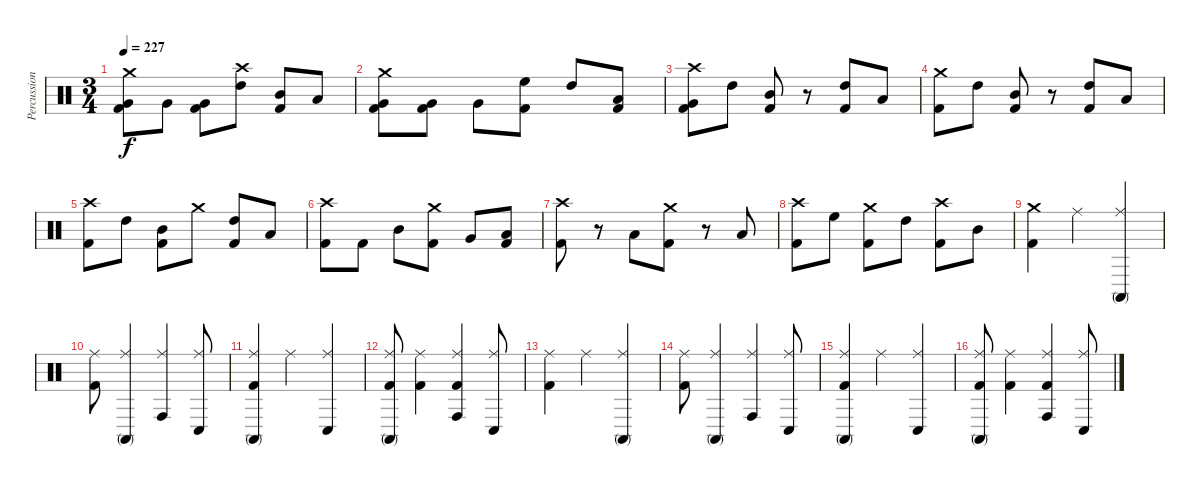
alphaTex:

\track ("Percussion" "Percussion") {instrument percussion}
\staff {score}
\articulation defaults
\ts (3 4)
\tempo 227
\clef neutral
\ks c
("Crash medium (hit)" "Very Low Tom (hit)" "Kick (hit) 2").8{dy f} "Very Low Tom (hit)".8 ("Very Low Tom (hit)" "Kick (hit) 2").8 ("Crash high (hit)" "High Tom (hit)").8 ("Mid Tom (hit)" "Kick (hit) 2").8 "Low Tom (hit)".8 |
("Crash medium (hit)" "Very Low Tom (hit)" "Kick (hit) 2").8 ("Very Low Tom (hit)" "Kick (hit) 2").8 "Very Low Tom (hit)".8 ("High Floor Tom (hit)" "Kick (hit) 2").8 "High Tom (hit)".8 ("Low Tom (hit)" "Kick (hit) 2").8 |
("Crash high (hit)" "Very Low Tom (hit)" "Kick (hit) 2").8 "High Tom (hit)".8 ("Mid Tom (hit)" "Kick (hit) 2").8 r.8 ("High Tom (hit)" "Kick (hit) 2").8 "Low Tom (hit)".8 |
("Crash medium (hit)" "Kick (hit) 2").8 "High Tom (hit)".8 ("Mid Tom (hit)" "Kick (hit) 2").8 r.8 ("High Tom (hit)" "Kick (hit) 2").8 "Low Tom (hit)".8 |
("Crash high (hit)" "Kick (hit) 2").8 "High Tom (hit)".8 ("Mid Tom (hit)" "Kick (hit) 2").8 "Crash medium (hit)".8 ("High Tom (hit)" "Kick (hit) 2").8 "Low Tom (hit)".8 |
("Crash high (hit)" "Kick (hit) 2").8 "Kick (hit) 2".8 "Mid Tom (hit)".8 ("Crash medium (hit)" "Kick (hit) 2").8 "Very Low Tom (hit)".8 ("Low Tom (hit)" "Kick (hit) 2").8 |
("Crash high (hit)" "Kick (hit) 2").8 r.8 "Low Floor Tom (hit)".8 ("Crash medium (hit)" "Kick (hit) 2").8 r.8 "Low Floor Tom (hit)".8 |
("Crash high (hit)" "Kick (hit) 2").8 "High Floor Tom (hit)".8 ("Crash medium (hit)" "Kick (hit) 2").8 "High Tom (hit)".8 ("Crash high (hit)" "Kick (hit) 2").8 "Mid Tom (hit)".8 |
("Crash medium (hit)" "Kick (hit) 2").4 "Ride (middle)".4 ("Ride (middle)" "Conga high (mute)").4 |
("Ride (middle)" "Kick (hit) 2").8 ("Ride (middle)" "Conga high (mute)").4 ("Ride (middle)" "Conga high (hit)").4 ("Ride (middle)" "Conga low (hit)").8 |
("Ride (middle)" "Conga high (mute)" "Kick (hit) 2").4 "Ride (middle)".4 ("Ride (middle)" "Conga low (hit)").4 |
("Ride (middle)" "Conga high (mute)" "Kick (hit) 2").8 ("Ride (middle)" "Kick (hit) 2").4 ("Ride (middle)" "Conga high (hit)" "Kick (hit) 2").4 ("Ride (middle)" "Conga low (hit)").8 |
("Ride (middle)" "Kick (hit) 2").4 "Ride (middle)".4 ("Ride (middle)" "Conga high (mute)").4 |
("Ride (middle)" "Kick (hit) 2").8 ("Ride (middle)" "Conga high (mute)").4 ("Ride (middle)" "Conga high (hit)").4 ("Ride (middle)" "Conga low (hit)").8 |
("Ride (middle)" "Conga high (mute)" "Kick (hit) 2").4 "Ride (middle)".4 ("Ride (middle)" "Conga low (hit)").4 |
("Ride (middle)" "Conga high (mute)" "Kick (hit) 2").8 ("Ride (middle)" "Kick (hit) 2").4 ("Ride (middle)" "Conga high (hit)" "Kick (hit) 2").4 ("Ride (middle)" "Conga low (hit)").8
